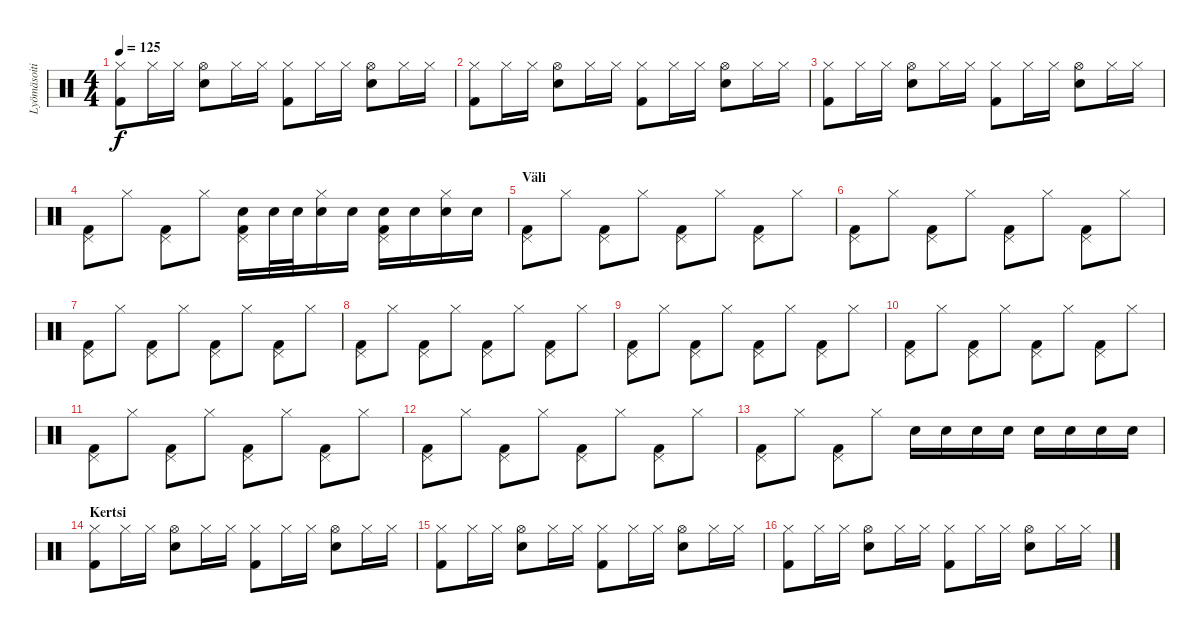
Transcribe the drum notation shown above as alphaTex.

\track ("Lyömäsoitin" "Lyömäsoiti") {instrument percussion}
\staff {score}
\articulation defaults
\ts (4 4)
\tempo 125
\clef neutral
\ks c
("Hi-Hat (closed)" "Kick (hit) 2").8{dy f} "Hi-Hat (closed)".16 "Hi-Hat (closed)".16 ("Hi-Hat (open)" "Snare (hit) 2").8 "Hi-Hat (closed)".16 "Hi-Hat (closed)".16 ("Hi-Hat (closed)" "Kick (hit) 2").8 "Hi-Hat (closed)".16 "Hi-Hat (closed)".16 ("Hi-Hat (open)" "Snare (hit) 2").8 "Hi-Hat (closed)".16 "Hi-Hat (closed)".16 |
("Hi-Hat (closed)" "Kick (hit) 2").8 "Hi-Hat (closed)".16 "Hi-Hat (closed)".16 ("Hi-Hat (open)" "Snare (hit) 2").8 "Hi-Hat (closed)".16 "Hi-Hat (closed)".16 ("Hi-Hat (closed)" "Kick (hit) 2").8 "Hi-Hat (closed)".16 "Hi-Hat (closed)".16 ("Hi-Hat (open)" "Snare (hit) 2").8 "Hi-Hat (closed)".16 "Hi-Hat (closed)".16 |
("Hi-Hat (closed)" "Kick (hit) 2").8 "Hi-Hat (closed)".16 "Hi-Hat (closed)".16 ("Hi-Hat (open)" "Snare (hit) 2").8 "Hi-Hat (closed)".16 "Hi-Hat (closed)".16 ("Hi-Hat (closed)" "Kick (hit) 2").8 "Hi-Hat (closed)".16 "Hi-Hat (closed)".16 ("Hi-Hat (open)" "Snare (hit) 2").8 "Hi-Hat (closed)".16 "Hi-Hat (closed)".16 |
("Pedal Hi-Hat (hit)" "Kick (hit) 2").8 "Hi-Hat (closed)".8 ("Pedal Hi-Hat (hit)" "Kick (hit) 2").8 "Hi-Hat (closed)".8 ("Pedal Hi-Hat (hit)" "Snare (hit) 2" "Kick (hit) 2").16 "Snare (hit) 2".32 "Snare (hit) 2".32 ("Hi-Hat (closed)" "Snare (hit) 2").16 "Snare (hit) 2".16 ("Pedal Hi-Hat (hit)" "Snare (hit) 2" "Kick (hit) 2").16 "Snare (hit) 2".16 ("Hi-Hat (closed)" "Snare (hit) 2").16 "Snare (hit) 2".16 |
\section ("" "Väli")
("Pedal Hi-Hat (hit)" "Kick (hit) 2").8 "Hi-Hat (closed)".8 ("Pedal Hi-Hat (hit)" "Kick (hit) 2").8 "Hi-Hat (closed)".8 ("Pedal Hi-Hat (hit)" "Kick (hit) 2").8 "Hi-Hat (closed)".8 ("Pedal Hi-Hat (hit)" "Kick (hit) 2").8 "Hi-Hat (closed)".8 |
("Pedal Hi-Hat (hit)" "Kick (hit) 2").8 "Hi-Hat (closed)".8 ("Pedal Hi-Hat (hit)" "Kick (hit) 2").8 "Hi-Hat (closed)".8 ("Pedal Hi-Hat (hit)" "Kick (hit) 2").8 "Hi-Hat (closed)".8 ("Pedal Hi-Hat (hit)" "Kick (hit) 2").8 "Hi-Hat (closed)".8 |
("Pedal Hi-Hat (hit)" "Kick (hit) 2").8 "Hi-Hat (closed)".8 ("Pedal Hi-Hat (hit)" "Kick (hit) 2").8 "Hi-Hat (closed)".8 ("Pedal Hi-Hat (hit)" "Kick (hit) 2").8 "Hi-Hat (closed)".8 ("Pedal Hi-Hat (hit)" "Kick (hit) 2").8 "Hi-Hat (closed)".8 |
("Pedal Hi-Hat (hit)" "Kick (hit) 2").8 "Hi-Hat (closed)".8 ("Pedal Hi-Hat (hit)" "Kick (hit) 2").8 "Hi-Hat (closed)".8 ("Pedal Hi-Hat (hit)" "Kick (hit) 2").8 "Hi-Hat (closed)".8 ("Pedal Hi-Hat (hit)" "Kick (hit) 2").8 "Hi-Hat (closed)".8 |
("Pedal Hi-Hat (hit)" "Kick (hit) 2").8 "Hi-Hat (closed)".8 ("Pedal Hi-Hat (hit)" "Kick (hit) 2").8 "Hi-Hat (closed)".8 ("Pedal Hi-Hat (hit)" "Kick (hit) 2").8 "Hi-Hat (closed)".8 ("Pedal Hi-Hat (hit)" "Kick (hit) 2").8 "Hi-Hat (closed)".8 |
("Pedal Hi-Hat (hit)" "Kick (hit) 2").8 "Hi-Hat (closed)".8 ("Pedal Hi-Hat (hit)" "Kick (hit) 2").8 "Hi-Hat (closed)".8 ("Pedal Hi-Hat (hit)" "Kick (hit) 2").8 "Hi-Hat (closed)".8 ("Pedal Hi-Hat (hit)" "Kick (hit) 2").8 "Hi-Hat (closed)".8 |
("Pedal Hi-Hat (hit)" "Kick (hit) 2").8 "Hi-Hat (closed)".8 ("Pedal Hi-Hat (hit)" "Kick (hit) 2").8 "Hi-Hat (closed)".8 ("Pedal Hi-Hat (hit)" "Kick (hit) 2").8 "Hi-Hat (closed)".8 ("Pedal Hi-Hat (hit)" "Kick (hit) 2").8 "Hi-Hat (closed)".8 |
("Pedal Hi-Hat (hit)" "Kick (hit) 2").8 "Hi-Hat (closed)".8 ("Pedal Hi-Hat (hit)" "Kick (hit) 2").8 "Hi-Hat (closed)".8 ("Pedal Hi-Hat (hit)" "Kick (hit) 2").8 "Hi-Hat (closed)".8 ("Pedal Hi-Hat (hit)" "Kick (hit) 2").8 "Hi-Hat (closed)".8 |
("Pedal Hi-Hat (hit)" "Kick (hit) 2").8 "Hi-Hat (closed)".8 ("Pedal Hi-Hat (hit)" "Kick (hit) 2").8 "Hi-Hat (closed)".8 "Snare (hit) 2".16 "Snare (hit) 2".16 "Snare (hit) 2".16 "Snare (hit) 2".16 "Snare (hit) 2".16 "Snare (hit) 2".16 "Snare (hit) 2".16 "Snare (hit) 2".16 |
\section ("" "Kertsi")
("Hi-Hat (closed)" "Kick (hit) 2").8 "Hi-Hat (closed)".16 "Hi-Hat (closed)".16 ("Hi-Hat (open)" "Snare (hit) 2").8 "Hi-Hat (closed)".16 "Hi-Hat (closed)".16 ("Hi-Hat (closed)" "Kick (hit) 2").8 "Hi-Hat (closed)".16 "Hi-Hat (closed)".16 ("Hi-Hat (open)" "Snare (hit) 2").8 "Hi-Hat (closed)".16 "Hi-Hat (closed)".16 |
("Hi-Hat (closed)" "Kick (hit) 2").8 "Hi-Hat (closed)".16 "Hi-Hat (closed)".16 ("Hi-Hat (open)" "Snare (hit) 2").8 "Hi-Hat (closed)".16 "Hi-Hat (closed)".16 ("Hi-Hat (closed)" "Kick (hit) 2").8 "Hi-Hat (closed)".16 "Hi-Hat (closed)".16 ("Hi-Hat (open)" "Snare (hit) 2").8 "Hi-Hat (closed)".16 "Hi-Hat (closed)".16 |
("Hi-Hat (closed)" "Kick (hit) 2").8 "Hi-Hat (closed)".16 "Hi-Hat (closed)".16 ("Hi-Hat (open)" "Snare (hit) 2").8 "Hi-Hat (closed)".16 "Hi-Hat (closed)".16 ("Hi-Hat (closed)" "Kick (hit) 2").8 "Hi-Hat (closed)".16 "Hi-Hat (closed)".16 ("Hi-Hat (open)" "Snare (hit) 2").8 "Hi-Hat (closed)".16 "Hi-Hat (closed)".16
